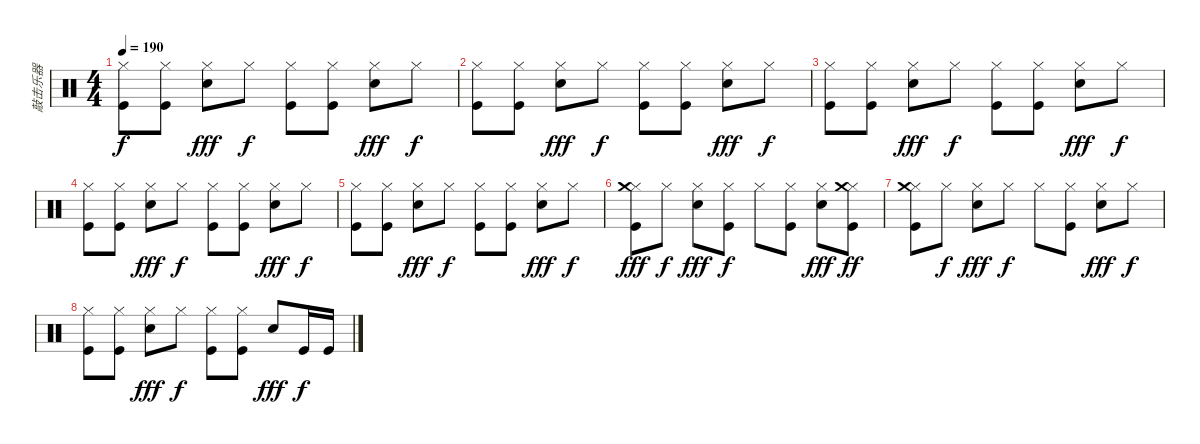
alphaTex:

\track ("敲击乐器" "敲击乐器") {instrument percussion}
\staff {score}
\articulation defaults
\ts (4 4)
\tempo 190
\clef neutral
\ks c
("Hi-Hat (closed)" "Kick (hit)").8{dy f} ("Hi-Hat (closed)" "Kick (hit)").8 ("Hi-Hat (closed)" "Electric Snare (hit)").8{dy fff} "Hi-Hat (closed)".8{dy f} ("Hi-Hat (closed)" "Kick (hit)").8 ("Hi-Hat (closed)" "Kick (hit)").8 ("Hi-Hat (closed)" "Electric Snare (hit)").8{dy fff} "Hi-Hat (closed)".8{dy f} |
("Hi-Hat (closed)" "Kick (hit)").8 ("Hi-Hat (closed)" "Kick (hit)").8 ("Hi-Hat (closed)" "Electric Snare (hit)").8{dy fff} "Hi-Hat (closed)".8{dy f} ("Hi-Hat (closed)" "Kick (hit)").8 ("Hi-Hat (closed)" "Kick (hit)").8 ("Hi-Hat (closed)" "Electric Snare (hit)").8{dy fff} "Hi-Hat (closed)".8{dy f} |
("Hi-Hat (closed)" "Kick (hit)").8 ("Hi-Hat (closed)" "Kick (hit)").8 ("Hi-Hat (closed)" "Electric Snare (hit)").8{dy fff} "Hi-Hat (closed)".8{dy f} ("Hi-Hat (closed)" "Kick (hit)").8 ("Hi-Hat (closed)" "Kick (hit)").8 ("Hi-Hat (closed)" "Electric Snare (hit)").8{dy fff} "Hi-Hat (closed)".8{dy f} |
("Hi-Hat (closed)" "Kick (hit)").8 ("Hi-Hat (closed)" "Kick (hit)").8 ("Hi-Hat (closed)" "Electric Snare (hit)").8{dy fff} "Hi-Hat (closed)".8{dy f} ("Hi-Hat (closed)" "Kick (hit)").8 ("Hi-Hat (closed)" "Kick (hit)").8 ("Hi-Hat (closed)" "Electric Snare (hit)").8{dy fff} "Hi-Hat (closed)".8{dy f} |
("Hi-Hat (closed)" "Kick (hit)").8 ("Hi-Hat (closed)" "Kick (hit)").8 ("Hi-Hat (closed)" "Electric Snare (hit)").8{dy fff} "Hi-Hat (closed)".8{dy f} ("Hi-Hat (closed)" "Kick (hit)").8 ("Hi-Hat (closed)" "Kick (hit)").8 ("Hi-Hat (closed)" "Electric Snare (hit)").8{dy fff} "Hi-Hat (closed)".8{dy f} |
("Hi-Hat (closed)" "Crash medium (hit)" "Kick (hit)").8{dy fff} "Hi-Hat (closed)".8{dy f} ("Hi-Hat (closed)" "Electric Snare (hit)").8{dy fff} ("Hi-Hat (closed)" "Kick (hit)").8{dy f} "Hi-Hat (closed)".8 ("Hi-Hat (closed)" "Kick (hit)").8 ("Hi-Hat (closed)" "Electric Snare (hit)").8{dy fff} ("Hi-Hat (closed)" "Crash medium (hit)" "Kick (hit)").8{dy ff} |
("Hi-Hat (closed)" "Crash medium (hit)" "Kick (hit)").8 "Hi-Hat (closed)".8{dy f} ("Hi-Hat (closed)" "Electric Snare (hit)").8{dy fff} "Hi-Hat (closed)".8{dy f} "Hi-Hat (closed)".8 ("Hi-Hat (closed)" "Kick (hit)").8 ("Hi-Hat (closed)" "Electric Snare (hit)").8{dy fff} "Hi-Hat (closed)".8{dy f} |
("Hi-Hat (closed)" "Kick (hit)").8 ("Hi-Hat (closed)" "Kick (hit)").8 ("Hi-Hat (closed)" "Electric Snare (hit)").8{dy fff} "Hi-Hat (closed)".8{dy f} ("Hi-Hat (closed)" "Kick (hit)").8 ("Hi-Hat (closed)" "Kick (hit)").8 "Electric Snare (hit)".8{dy fff} "Kick (hit)".16{dy f} "Kick (hit)".16
